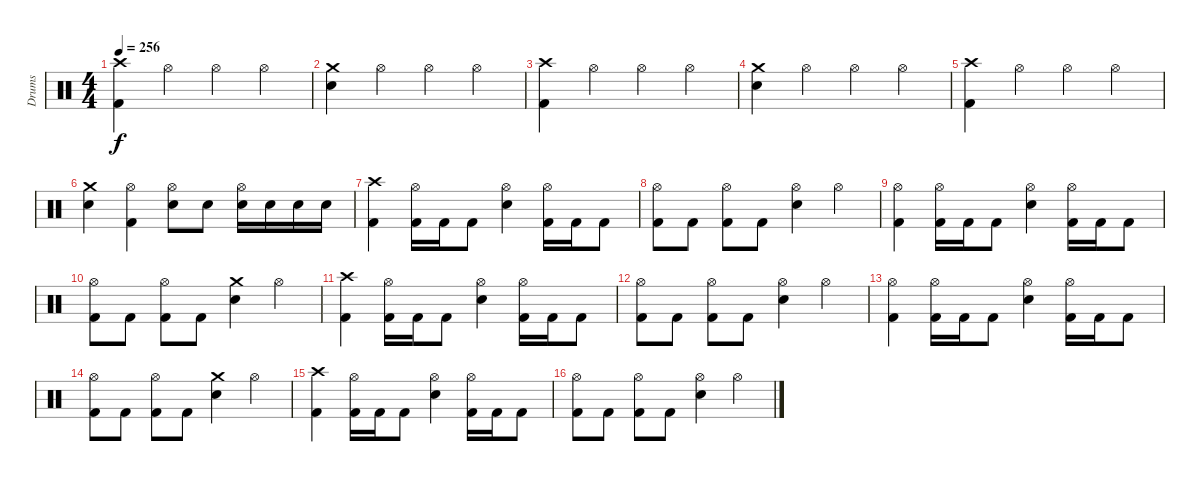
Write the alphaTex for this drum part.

\track ("Drums" "Drums") {instrument percussion}
\staff {score}
\articulation defaults
\ts (4 4)
\tempo 256
\clef neutral
\ks c
("Crash high (hit)" "Kick (hit) 2").4{dy f} "Hi-Hat (open)".4 "Hi-Hat (open)".4 "Hi-Hat (open)".4 |
("Crash medium (hit)" "Electric Snare (hit)").4 "Hi-Hat (open)".4 "Hi-Hat (open)".4 "Hi-Hat (open)".4 |
("Crash high (hit)" "Kick (hit) 2").4 "Hi-Hat (open)".4 "Hi-Hat (open)".4 "Hi-Hat (open)".4 |
("Crash medium (hit)" "Electric Snare (hit)").4 "Hi-Hat (open)".4 "Hi-Hat (open)".4 "Hi-Hat (open)".4 |
("Crash high (hit)" "Kick (hit) 2").4 "Hi-Hat (open)".4 "Hi-Hat (open)".4 "Hi-Hat (open)".4 |
("Crash medium (hit)" "Electric Snare (hit)").4 ("Hi-Hat (open)" "Kick (hit) 2").4 ("Hi-Hat (open)" "Electric Snare (hit)").8 "Electric Snare (hit)".8 ("Hi-Hat (open)" "Electric Snare (hit)").16 "Electric Snare (hit)".16 "Electric Snare (hit)".16 "Electric Snare (hit)".16 |
("Crash high (hit)" "Kick (hit) 2").4 ("Hi-Hat (open)" "Kick (hit) 2").16 "Kick (hit) 2".16 "Kick (hit) 2".8 ("Hi-Hat (open)" "Electric Snare (hit)").4 ("Hi-Hat (open)" "Kick (hit) 2").16 "Kick (hit) 2".16 "Kick (hit) 2".8 |
("Hi-Hat (open)" "Kick (hit) 2").8 "Kick (hit) 2".8 ("Hi-Hat (open)" "Kick (hit) 2").8 "Kick (hit) 2".8 ("Hi-Hat (open)" "Electric Snare (hit)").4 "Hi-Hat (open)".4 |
("Hi-Hat (open)" "Kick (hit) 2").4 ("Hi-Hat (open)" "Kick (hit) 2").16 "Kick (hit) 2".16 "Kick (hit) 2".8 ("Hi-Hat (open)" "Electric Snare (hit)").4 ("Hi-Hat (open)" "Kick (hit) 2").16 "Kick (hit) 2".16 "Kick (hit) 2".8 |
("Hi-Hat (open)" "Kick (hit) 2").8 "Kick (hit) 2".8 ("Hi-Hat (open)" "Kick (hit) 2").8 "Kick (hit) 2".8 ("Crash medium (hit)" "Electric Snare (hit)").4 "Hi-Hat (open)".4 |
("Crash high (hit)" "Kick (hit) 2").4 ("Hi-Hat (open)" "Kick (hit) 2").16 "Kick (hit) 2".16 "Kick (hit) 2".8 ("Hi-Hat (open)" "Electric Snare (hit)").4 ("Hi-Hat (open)" "Kick (hit) 2").16 "Kick (hit) 2".16 "Kick (hit) 2".8 |
("Hi-Hat (open)" "Kick (hit) 2").8 "Kick (hit) 2".8 ("Hi-Hat (open)" "Kick (hit) 2").8 "Kick (hit) 2".8 ("Hi-Hat (open)" "Electric Snare (hit)").4 "Hi-Hat (open)".4 |
("Hi-Hat (open)" "Kick (hit) 2").4 ("Hi-Hat (open)" "Kick (hit) 2").16 "Kick (hit) 2".16 "Kick (hit) 2".8 ("Hi-Hat (open)" "Electric Snare (hit)").4 ("Hi-Hat (open)" "Kick (hit) 2").16 "Kick (hit) 2".16 "Kick (hit) 2".8 |
("Hi-Hat (open)" "Kick (hit) 2").8 "Kick (hit) 2".8 ("Hi-Hat (open)" "Kick (hit) 2").8 "Kick (hit) 2".8 ("Crash medium (hit)" "Electric Snare (hit)").4 "Hi-Hat (open)".4 |
("Crash high (hit)" "Kick (hit) 2").4 ("Hi-Hat (open)" "Kick (hit) 2").16 "Kick (hit) 2".16 "Kick (hit) 2".8 ("Hi-Hat (open)" "Electric Snare (hit)").4 ("Hi-Hat (open)" "Kick (hit) 2").16 "Kick (hit) 2".16 "Kick (hit) 2".8 |
("Hi-Hat (open)" "Kick (hit) 2").8 "Kick (hit) 2".8 ("Hi-Hat (open)" "Kick (hit) 2").8 "Kick (hit) 2".8 ("Hi-Hat (open)" "Electric Snare (hit)").4 "Hi-Hat (open)".4
